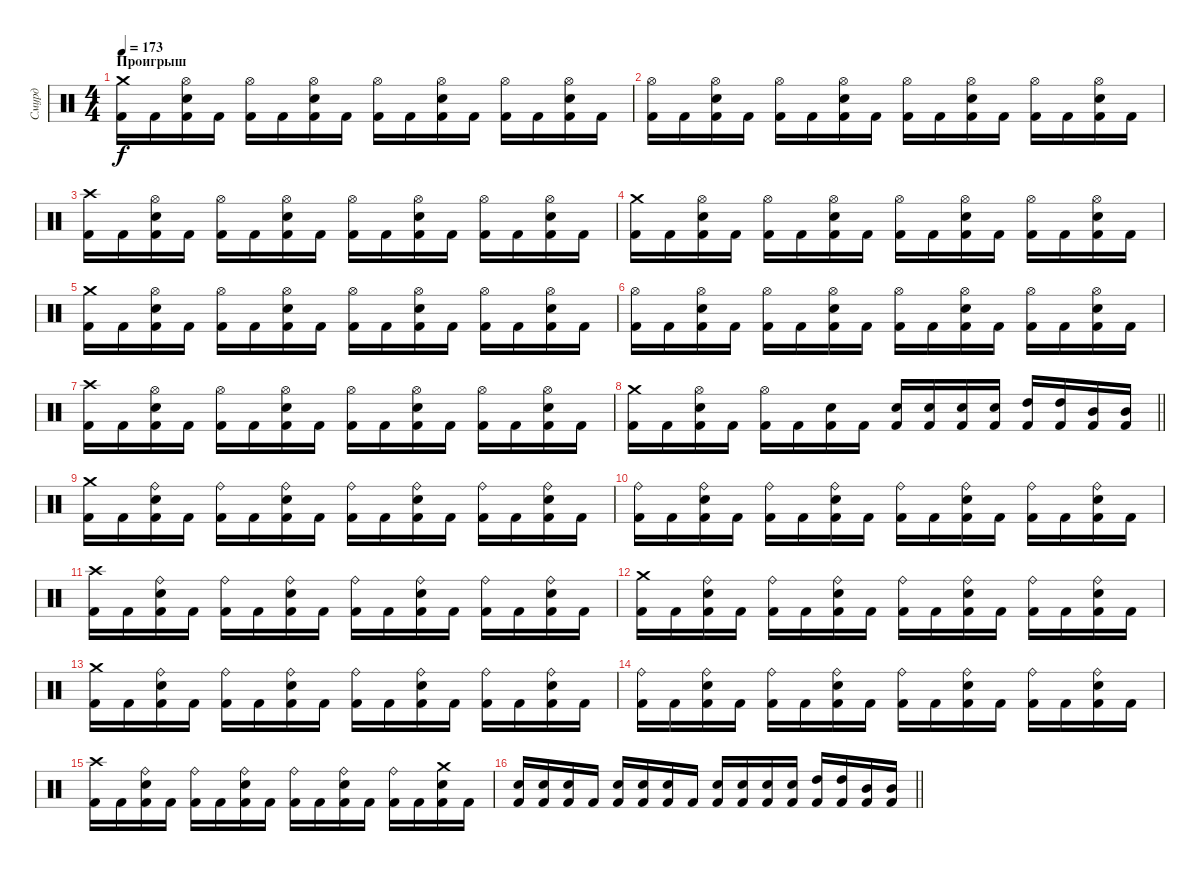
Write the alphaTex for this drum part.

\track ("Смурд" "Смурд") {instrument percussion}
\staff {score}
\articulation defaults
\ts (4 4)
\section ("" "Проигрыш")
\tempo 173
\clef neutral
\ks c
("Crash medium (hit)" "Kick (hit) 2").16{dy f} "Kick (hit) 2".16 ("Hi-Hat (open)" "Electric Snare (hit)" "Kick (hit) 2").16 "Kick (hit) 2".16 ("Hi-Hat (open)" "Kick (hit) 2").16 "Kick (hit) 2".16 ("Hi-Hat (open)" "Electric Snare (hit)" "Kick (hit) 2").16 "Kick (hit) 2".16 ("Hi-Hat (open)" "Kick (hit) 2").16 "Kick (hit) 2".16 ("Hi-Hat (open)" "Electric Snare (hit)" "Kick (hit) 2").16 "Kick (hit) 2".16 ("Hi-Hat (open)" "Kick (hit) 2").16 "Kick (hit) 2".16 ("Hi-Hat (open)" "Electric Snare (hit)" "Kick (hit) 2").16 "Kick (hit) 2".16 |
("Hi-Hat (open)" "Kick (hit) 2").16 "Kick (hit) 2".16 ("Hi-Hat (open)" "Electric Snare (hit)" "Kick (hit) 2").16 "Kick (hit) 2".16 ("Hi-Hat (open)" "Kick (hit) 2").16 "Kick (hit) 2".16 ("Hi-Hat (open)" "Electric Snare (hit)" "Kick (hit) 2").16 "Kick (hit) 2".16 ("Hi-Hat (open)" "Kick (hit) 2").16 "Kick (hit) 2".16 ("Hi-Hat (open)" "Electric Snare (hit)" "Kick (hit) 2").16 "Kick (hit) 2".16 ("Hi-Hat (open)" "Kick (hit) 2").16 "Kick (hit) 2".16 ("Hi-Hat (open)" "Electric Snare (hit)" "Kick (hit) 2").16 "Kick (hit) 2".16 |
("Crash high (hit)" "Kick (hit) 2").16 "Kick (hit) 2".16 ("Hi-Hat (open)" "Electric Snare (hit)" "Kick (hit) 2").16 "Kick (hit) 2".16 ("Hi-Hat (open)" "Kick (hit) 2").16 "Kick (hit) 2".16 ("Hi-Hat (open)" "Electric Snare (hit)" "Kick (hit) 2").16 "Kick (hit) 2".16 ("Hi-Hat (open)" "Kick (hit) 2").16 "Kick (hit) 2".16 ("Hi-Hat (open)" "Electric Snare (hit)" "Kick (hit) 2").16 "Kick (hit) 2".16 ("Hi-Hat (open)" "Kick (hit) 2").16 "Kick (hit) 2".16 ("Hi-Hat (open)" "Electric Snare (hit)" "Kick (hit) 2").16 "Kick (hit) 2".16 |
("Crash medium (hit)" "Kick (hit) 2").16 "Kick (hit) 2".16 ("Hi-Hat (open)" "Electric Snare (hit)" "Kick (hit) 2").16 "Kick (hit) 2".16 ("Hi-Hat (open)" "Kick (hit) 2").16 "Kick (hit) 2".16 ("Hi-Hat (open)" "Electric Snare (hit)" "Kick (hit) 2").16 "Kick (hit) 2".16 ("Hi-Hat (open)" "Kick (hit) 2").16 "Kick (hit) 2".16 ("Hi-Hat (open)" "Electric Snare (hit)" "Kick (hit) 2").16 "Kick (hit) 2".16 ("Hi-Hat (open)" "Kick (hit) 2").16 "Kick (hit) 2".16 ("Hi-Hat (open)" "Electric Snare (hit)" "Kick (hit) 2").16 "Kick (hit) 2".16 |
("Crash medium (hit)" "Kick (hit) 2").16 "Kick (hit) 2".16 ("Hi-Hat (open)" "Electric Snare (hit)" "Kick (hit) 2").16 "Kick (hit) 2".16 ("Hi-Hat (open)" "Kick (hit) 2").16 "Kick (hit) 2".16 ("Hi-Hat (open)" "Electric Snare (hit)" "Kick (hit) 2").16 "Kick (hit) 2".16 ("Hi-Hat (open)" "Kick (hit) 2").16 "Kick (hit) 2".16 ("Hi-Hat (open)" "Electric Snare (hit)" "Kick (hit) 2").16 "Kick (hit) 2".16 ("Hi-Hat (open)" "Kick (hit) 2").16 "Kick (hit) 2".16 ("Hi-Hat (open)" "Electric Snare (hit)" "Kick (hit) 2").16 "Kick (hit) 2".16 |
("Hi-Hat (open)" "Kick (hit) 2").16 "Kick (hit) 2".16 ("Hi-Hat (open)" "Electric Snare (hit)" "Kick (hit) 2").16 "Kick (hit) 2".16 ("Hi-Hat (open)" "Kick (hit) 2").16 "Kick (hit) 2".16 ("Hi-Hat (open)" "Electric Snare (hit)" "Kick (hit) 2").16 "Kick (hit) 2".16 ("Hi-Hat (open)" "Kick (hit) 2").16 "Kick (hit) 2".16 ("Hi-Hat (open)" "Electric Snare (hit)" "Kick (hit) 2").16 "Kick (hit) 2".16 ("Hi-Hat (open)" "Kick (hit) 2").16 "Kick (hit) 2".16 ("Hi-Hat (open)" "Electric Snare (hit)" "Kick (hit) 2").16 "Kick (hit) 2".16 |
("Crash high (hit)" "Kick (hit) 2").16 "Kick (hit) 2".16 ("Hi-Hat (open)" "Electric Snare (hit)" "Kick (hit) 2").16 "Kick (hit) 2".16 ("Hi-Hat (open)" "Kick (hit) 2").16 "Kick (hit) 2".16 ("Hi-Hat (open)" "Electric Snare (hit)" "Kick (hit) 2").16 "Kick (hit) 2".16 ("Hi-Hat (open)" "Kick (hit) 2").16 "Kick (hit) 2".16 ("Hi-Hat (open)" "Electric Snare (hit)" "Kick (hit) 2").16 "Kick (hit) 2".16 ("Hi-Hat (open)" "Kick (hit) 2").16 "Kick (hit) 2".16 ("Hi-Hat (open)" "Electric Snare (hit)" "Kick (hit) 2").16 "Kick (hit) 2".16 |
\barLineRight lightlight
("Crash medium (hit)" "Kick (hit) 2").16 "Kick (hit) 2".16 ("Hi-Hat (open)" "Electric Snare (hit)" "Kick (hit) 2").16 "Kick (hit) 2".16 ("Hi-Hat (open)" "Kick (hit) 2").16 "Kick (hit) 2".16 ("Electric Snare (hit)" "Kick (hit) 2").16 "Kick (hit) 2".16 ("Electric Snare (hit)" "Kick (hit) 2").16 ("Electric Snare (hit)" "Kick (hit) 2").16 ("Electric Snare (hit)" "Kick (hit) 2").16 ("Electric Snare (hit)" "Kick (hit) 2").16 ("High Tom (hit)" "Kick (hit) 2").16 ("High Tom (hit)" "Kick (hit) 2").16 ("Mid Tom (hit)" "Kick (hit) 2").16 ("Mid Tom (hit)" "Kick (hit) 2").16 |
("Crash medium (hit)" "Kick (hit) 2").16 "Kick (hit) 2".16 ("Ride (bell)" "Electric Snare (hit)" "Kick (hit) 2").16 "Kick (hit) 2".16 ("Ride (bell)" "Kick (hit) 2").16 "Kick (hit) 2".16 ("Ride (bell)" "Electric Snare (hit)" "Kick (hit) 2").16 "Kick (hit) 2".16 ("Ride (bell)" "Kick (hit) 2").16 "Kick (hit) 2".16 ("Ride (bell)" "Electric Snare (hit)" "Kick (hit) 2").16 "Kick (hit) 2".16 ("Ride (bell)" "Kick (hit) 2").16 "Kick (hit) 2".16 ("Ride (bell)" "Electric Snare (hit)" "Kick (hit) 2").16 "Kick (hit) 2".16 |
("Ride (bell)" "Kick (hit) 2").16 "Kick (hit) 2".16 ("Ride (bell)" "Electric Snare (hit)" "Kick (hit) 2").16 "Kick (hit) 2".16 ("Ride (bell)" "Kick (hit) 2").16 "Kick (hit) 2".16 ("Ride (bell)" "Electric Snare (hit)" "Kick (hit) 2").16 "Kick (hit) 2".16 ("Ride (bell)" "Kick (hit) 2").16 "Kick (hit) 2".16 ("Ride (bell)" "Electric Snare (hit)" "Kick (hit) 2").16 "Kick (hit) 2".16 ("Ride (bell)" "Kick (hit) 2").16 "Kick (hit) 2".16 ("Ride (bell)" "Electric Snare (hit)" "Kick (hit) 2").16 "Kick (hit) 2".16 |
("Crash high (hit)" "Kick (hit) 2").16 "Kick (hit) 2".16 ("Ride (bell)" "Electric Snare (hit)" "Kick (hit) 2").16 "Kick (hit) 2".16 ("Ride (bell)" "Kick (hit) 2").16 "Kick (hit) 2".16 ("Ride (bell)" "Electric Snare (hit)" "Kick (hit) 2").16 "Kick (hit) 2".16 ("Ride (bell)" "Kick (hit) 2").16 "Kick (hit) 2".16 ("Ride (bell)" "Electric Snare (hit)" "Kick (hit) 2").16 "Kick (hit) 2".16 ("Ride (bell)" "Kick (hit) 2").16 "Kick (hit) 2".16 ("Ride (bell)" "Electric Snare (hit)" "Kick (hit) 2").16 "Kick (hit) 2".16 |
("Crash medium (hit)" "Kick (hit) 2").16 "Kick (hit) 2".16 ("Ride (bell)" "Electric Snare (hit)" "Kick (hit) 2").16 "Kick (hit) 2".16 ("Ride (bell)" "Kick (hit) 2").16 "Kick (hit) 2".16 ("Ride (bell)" "Electric Snare (hit)" "Kick (hit) 2").16 "Kick (hit) 2".16 ("Ride (bell)" "Kick (hit) 2").16 "Kick (hit) 2".16 ("Ride (bell)" "Electric Snare (hit)" "Kick (hit) 2").16 "Kick (hit) 2".16 ("Ride (bell)" "Kick (hit) 2").16 "Kick (hit) 2".16 ("Ride (bell)" "Electric Snare (hit)" "Kick (hit) 2").16 "Kick (hit) 2".16 |
("Crash medium (hit)" "Kick (hit) 2").16 "Kick (hit) 2".16 ("Ride (bell)" "Electric Snare (hit)" "Kick (hit) 2").16 "Kick (hit) 2".16 ("Ride (bell)" "Kick (hit) 2").16 "Kick (hit) 2".16 ("Ride (bell)" "Electric Snare (hit)" "Kick (hit) 2").16 "Kick (hit) 2".16 ("Ride (bell)" "Kick (hit) 2").16 "Kick (hit) 2".16 ("Ride (bell)" "Electric Snare (hit)" "Kick (hit) 2").16 "Kick (hit) 2".16 ("Ride (bell)" "Kick (hit) 2").16 "Kick (hit) 2".16 ("Ride (bell)" "Electric Snare (hit)" "Kick (hit) 2").16 "Kick (hit) 2".16 |
("Ride (bell)" "Kick (hit) 2").16 "Kick (hit) 2".16 ("Ride (bell)" "Electric Snare (hit)" "Kick (hit) 2").16 "Kick (hit) 2".16 ("Ride (bell)" "Kick (hit) 2").16 "Kick (hit) 2".16 ("Ride (bell)" "Electric Snare (hit)" "Kick (hit) 2").16 "Kick (hit) 2".16 ("Ride (bell)" "Kick (hit) 2").16 "Kick (hit) 2".16 ("Ride (bell)" "Electric Snare (hit)" "Kick (hit) 2").16 "Kick (hit) 2".16 ("Ride (bell)" "Kick (hit) 2").16 "Kick (hit) 2".16 ("Ride (bell)" "Electric Snare (hit)" "Kick (hit) 2").16 "Kick (hit) 2".16 |
("Crash high (hit)" "Kick (hit) 2").16 "Kick (hit) 2".16 ("Ride (bell)" "Electric Snare (hit)" "Kick (hit) 2").16 "Kick (hit) 2".16 ("Ride (bell)" "Kick (hit) 2").16 "Kick (hit) 2".16 ("Ride (bell)" "Electric Snare (hit)" "Kick (hit) 2").16 "Kick (hit) 2".16 ("Ride (bell)" "Kick (hit) 2").16 "Kick (hit) 2".16 ("Ride (bell)" "Electric Snare (hit)" "Kick (hit) 2").16 "Kick (hit) 2".16 ("Ride (bell)" "Kick (hit) 2").16 "Kick (hit) 2".16 ("Crash medium (hit)" "Electric Snare (hit)" "Kick (hit) 2").16 "Kick (hit) 2".16 |
\barLineRight lightlight
("Electric Snare (hit)" "Kick (hit) 2").16 ("Electric Snare (hit)" "Kick (hit) 2").16 ("Electric Snare (hit)" "Kick (hit) 2").16 "Kick (hit) 2".16 ("Electric Snare (hit)" "Kick (hit) 2").16 ("Electric Snare (hit)" "Kick (hit) 2").16 ("Electric Snare (hit)" "Kick (hit) 2").16 "Kick (hit) 2".16 ("Electric Snare (hit)" "Kick (hit) 2").16 ("Electric Snare (hit)" "Kick (hit) 2").16 ("Electric Snare (hit)" "Kick (hit) 2").16 ("Electric Snare (hit)" "Kick (hit) 2").16 ("High Tom (hit)" "Kick (hit) 2").16 ("High Tom (hit)" "Kick (hit) 2").16 ("Mid Tom (hit)" "Kick (hit) 2").16 ("Mid Tom (hit)" "Kick (hit) 2").16
